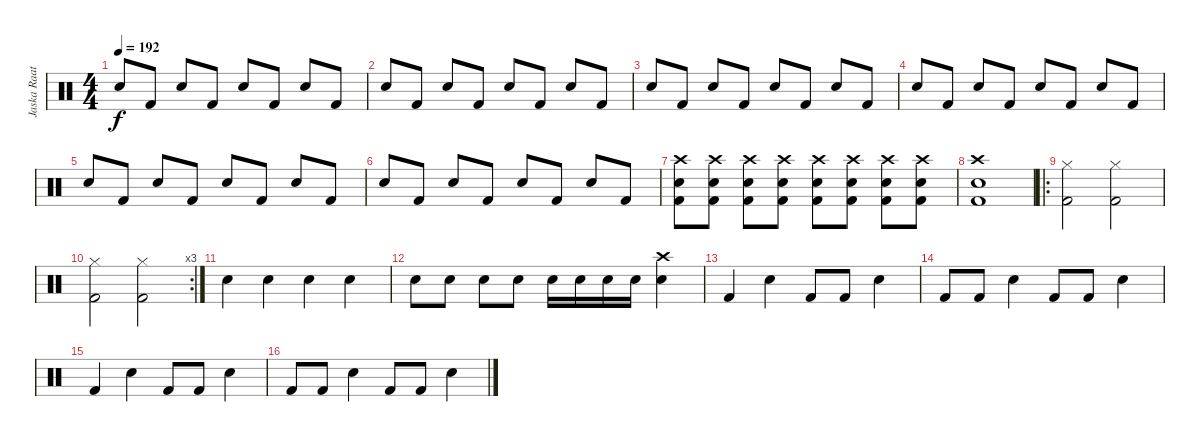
\track ("Jaska Raatikainen " "Jaska Raat") {instrument percussion}
\staff {score}
\articulation defaults
\ts (4 4)
\tempo 192
\clef neutral
\ks c "Snare (hit) 2".8{dy f} "Kick (hit) 2".8 "Snare (hit) 2".8 "Kick (hit) 2".8 "Snare (hit) 2".8 "Kick (hit) 2".8 "Snare (hit) 2".8 "Kick (hit) 2".8
|
"Snare (hit) 2".8 "Kick (hit) 2".8 "Snare (hit) 2".8 "Kick (hit) 2".8 "Snare (hit) 2".8 "Kick (hit) 2".8 "Snare (hit) 2".8 "Kick (hit) 2".8 |
"Snare (hit) 2".8 "Kick (hit) 2".8 "Snare (hit) 2".8 "Kick (hit) 2".8 "Snare (hit) 2".8 "Kick (hit) 2".8 "Snare (hit) 2".8 "Kick (hit) 2".8 |
"Snare (hit) 2".8 "Kick (hit) 2".8 "Snare (hit) 2".8 "Kick (hit) 2".8 "Snare (hit) 2".8 "Kick (hit) 2".8 "Snare (hit) 2".8 "Kick (hit) 2".8 |
"Snare (hit) 2".8 "Kick (hit) 2".8 "Snare (hit) 2".8 "Kick (hit) 2".8 "Snare (hit) 2".8 "Kick (hit) 2".8 "Snare (hit) 2".8 "Kick (hit) 2".8 |
"Snare (hit) 2".8 "Kick (hit) 2".8 "Snare (hit) 2".8 "Kick (hit) 2".8 "Snare (hit) 2".8 "Kick (hit) 2".8 "Snare (hit) 2".8 "Kick (hit) 2".8 |
("Crash high (hit)" "Snare (hit) 2" "Kick (hit) 2").8 ("Crash high (hit)" "Snare (hit) 2" "Kick (hit) 2").8 ("Crash high (hit)" "Snare (hit) 2" "Kick (hit) 2").8 ("Crash high (hit)" "Snare (hit) 2" "Kick (hit) 2").8 ("Crash high (hit)" "Snare (hit) 2" "Kick (hit) 2").8 ("Crash high (hit)" "Snare (hit) 2" "Kick (hit) 2").8 ("Crash high (hit)" "Snare (hit) 2" "Kick (hit) 2").8 ("Crash high (hit)" "Snare (hit) 2" "Kick (hit) 2").8 |
("Crash high (hit)" "Snare (hit) 2" "Kick (hit) 2").1 |
\ro
("Hi-Hat (closed)" "Kick (hit) 2").2 ("Hi-Hat (closed)" "Kick (hit) 2").2 |
\rc 3
("Hi-Hat (closed)" "Kick (hit) 2").2 ("Hi-Hat (closed)" "Kick (hit) 2").2 |
"Snare (hit) 2".4 "Snare (hit) 2".4 "Snare (hit) 2".4 "Snare (hit) 2".4 |
"Snare (hit) 2".8 "Snare (hit) 2".8 "Snare (hit) 2".8 "Snare (hit) 2".8 "Snare (hit) 2".16 "Snare (hit) 2".16 "Snare (hit) 2".16 "Snare (hit) 2".16 ("Crash high (hit)" "Snare (hit) 2").4 |
"Kick (hit) 2".4 "Snare (hit) 2".4 "Kick (hit) 2".8 "Kick (hit) 2".8 "Snare (hit) 2".4 |
"Kick (hit) 2".8 "Kick (hit) 2".8 "Snare (hit) 2".4 "Kick (hit) 2".8 "Kick (hit) 2".8 "Snare (hit) 2".4 |
"Kick (hit) 2".4 "Snare (hit) 2".4 "Kick (hit) 2".8 "Kick (hit) 2".8 "Snare (hit) 2".4 |
"Kick (hit) 2".8 "Kick (hit) 2".8 "Snare (hit) 2".4 "Kick (hit) 2".8 "Kick (hit) 2".8 "Snare (hit) 2".4
